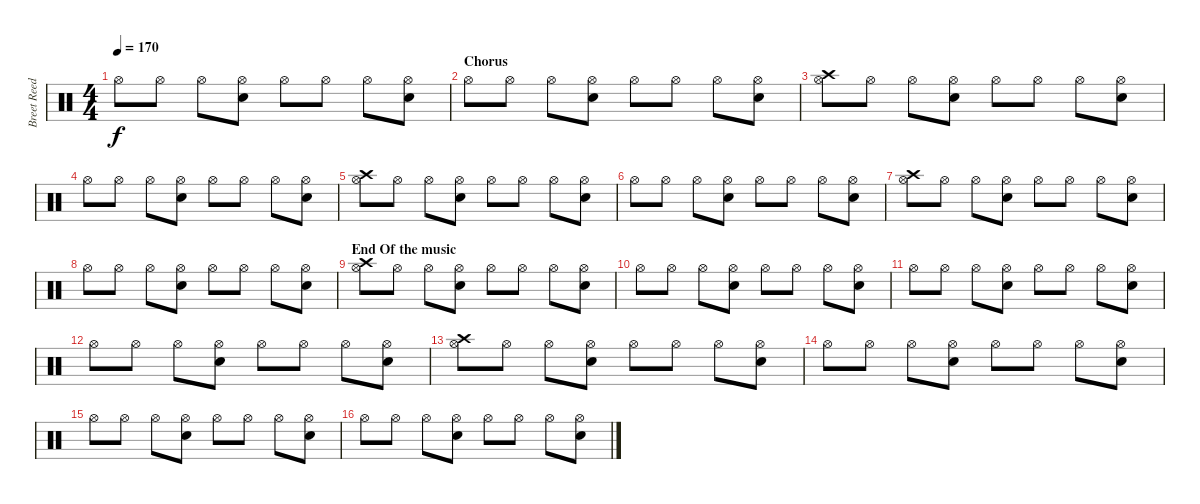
\track ("Breet Reed" "Breet Reed") {instrument percussion}
\staff {score}
\articulation defaults
\ts (4 4)
\tempo 170
\clef neutral
\ks c "Hi-Hat (open)".8{dy f} "Hi-Hat (open)".8 "Hi-Hat (open)".8
("Snare (hit) 2" "Hi-Hat (open)").8 "Hi-Hat (open)".8 "Hi-Hat (open)".8 "Hi-Hat (open)".8 ("Snare (hit) 2" "Hi-Hat (open)").8 |
\section ("" "Chorus")
"Hi-Hat (open)".8 "Hi-Hat (open)".8 "Hi-Hat (open)".8 ("Snare (hit) 2" "Hi-Hat (open)").8 "Hi-Hat (open)".8 "Hi-Hat (open)".8 "Hi-Hat (open)".8 ("Snare (hit) 2" "Hi-Hat (open)").8 |
("Crash high (hit)" "Hi-Hat (open)").8 "Hi-Hat (open)".8 "Hi-Hat (open)".8 ("Snare (hit) 2" "Hi-Hat (open)").8 "Hi-Hat (open)".8 "Hi-Hat (open)".8 "Hi-Hat (open)".8 ("Snare (hit) 2" "Hi-Hat (open)").8 |
"Hi-Hat (open)".8 "Hi-Hat (open)".8 "Hi-Hat (open)".8 ("Snare (hit) 2" "Hi-Hat (open)").8 "Hi-Hat (open)".8 "Hi-Hat (open)".8 "Hi-Hat (open)".8 ("Snare (hit) 2" "Hi-Hat (open)").8 |
("Crash high (hit)" "Hi-Hat (open)").8 "Hi-Hat (open)".8 "Hi-Hat (open)".8 ("Snare (hit) 2" "Hi-Hat (open)").8 "Hi-Hat (open)".8 "Hi-Hat (open)".8 "Hi-Hat (open)".8 ("Snare (hit) 2" "Hi-Hat (open)").8 |
"Hi-Hat (open)".8 "Hi-Hat (open)".8 "Hi-Hat (open)".8 ("Snare (hit) 2" "Hi-Hat (open)").8 "Hi-Hat (open)".8 "Hi-Hat (open)".8 "Hi-Hat (open)".8 ("Snare (hit) 2" "Hi-Hat (open)").8 |
("Crash high (hit)" "Hi-Hat (open)").8 "Hi-Hat (open)".8 "Hi-Hat (open)".8 ("Snare (hit) 2" "Hi-Hat (open)").8 "Hi-Hat (open)".8 "Hi-Hat (open)".8 "Hi-Hat (open)".8 ("Snare (hit) 2" "Hi-Hat (open)").8 |
"Hi-Hat (open)".8 "Hi-Hat (open)".8 "Hi-Hat (open)".8 ("Snare (hit) 2" "Hi-Hat (open)").8 "Hi-Hat (open)".8 "Hi-Hat (open)".8 "Hi-Hat (open)".8 ("Snare (hit) 2" "Hi-Hat (open)").8 |
\section ("" "End Of the music")
("Crash high (hit)" "Hi-Hat (open)").8 "Hi-Hat (open)".8 "Hi-Hat (open)".8 ("Snare (hit) 2" "Hi-Hat (open)").8 "Hi-Hat (open)".8 "Hi-Hat (open)".8 "Hi-Hat (open)".8 ("Snare (hit) 2" "Hi-Hat (open)").8 |
"Hi-Hat (open)".8 "Hi-Hat (open)".8 "Hi-Hat (open)".8 ("Snare (hit) 2" "Hi-Hat (open)").8 "Hi-Hat (open)".8 "Hi-Hat (open)".8 "Hi-Hat (open)".8 ("Snare (hit) 2" "Hi-Hat (open)").8 |
"Hi-Hat (open)".8 "Hi-Hat (open)".8 "Hi-Hat (open)".8 ("Snare (hit) 2" "Hi-Hat (open)").8 "Hi-Hat (open)".8 "Hi-Hat (open)".8 "Hi-Hat (open)".8 ("Snare (hit) 2" "Hi-Hat (open)").8 |
"Hi-Hat (open)".8 "Hi-Hat (open)".8 "Hi-Hat (open)".8 ("Snare (hit) 2" "Hi-Hat (open)").8 "Hi-Hat (open)".8 "Hi-Hat (open)".8 "Hi-Hat (open)".8 ("Snare (hit) 2" "Hi-Hat (open)").8 |
("Crash high (hit)" "Hi-Hat (open)").8 "Hi-Hat (open)".8 "Hi-Hat (open)".8 ("Snare (hit) 2" "Hi-Hat (open)").8 "Hi-Hat (open)".8 "Hi-Hat (open)".8 "Hi-Hat (open)".8 ("Snare (hit) 2" "Hi-Hat (open)").8 |
"Hi-Hat (open)".8 "Hi-Hat (open)".8 "Hi-Hat (open)".8 ("Snare (hit) 2" "Hi-Hat (open)").8 "Hi-Hat (open)".8 "Hi-Hat (open)".8 "Hi-Hat (open)".8 ("Snare (hit) 2" "Hi-Hat (open)").8 |
"Hi-Hat (open)".8 "Hi-Hat (open)".8 "Hi-Hat (open)".8 ("Snare (hit) 2" "Hi-Hat (open)").8 "Hi-Hat (open)".8 "Hi-Hat (open)".8 "Hi-Hat (open)".8 ("Snare (hit) 2" "Hi-Hat (open)").8 |
"Hi-Hat (open)".8 "Hi-Hat (open)".8 "Hi-Hat (open)".8 ("Snare (hit) 2" "Hi-Hat (open)").8 "Hi-Hat (open)".8 "Hi-Hat (open)".8 "Hi-Hat (open)".8 ("Snare (hit) 2" "Hi-Hat (open)").8
